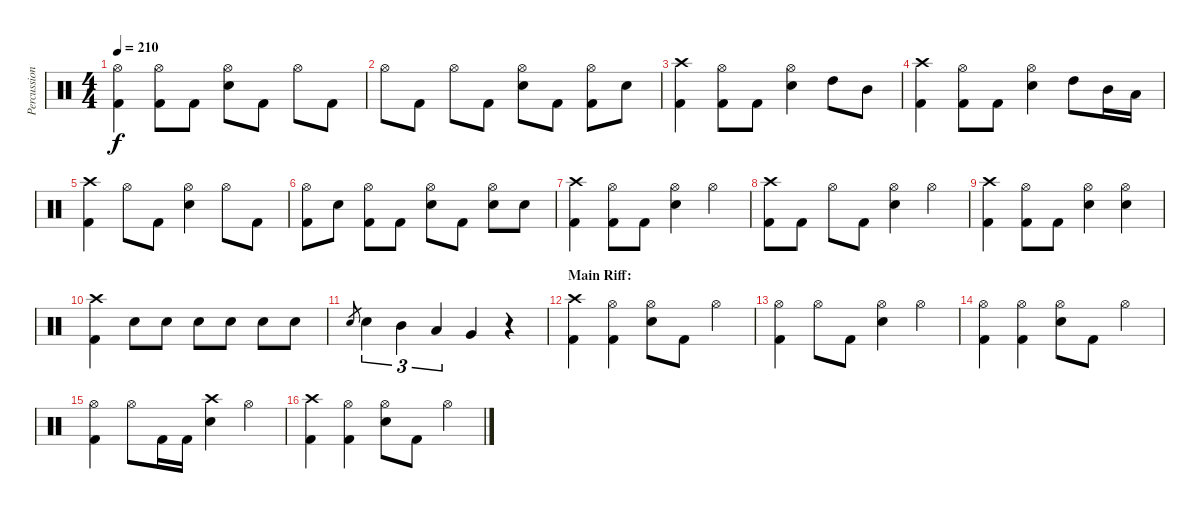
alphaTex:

\track ("Percussion" "Percussion") {instrument percussion}
\staff {score}
\articulation defaults
\ts (4 4)
\tempo 210
\clef neutral
\ks c
("Hi-Hat (open)" "Kick (hit) 2").4{dy f} ("Hi-Hat (open)" "Kick (hit) 2").8 "Kick (hit) 2".8 ("Hi-Hat (open)" "Snare (hit) 2").8 "Kick (hit) 2".8 "Hi-Hat (open)".8 "Kick (hit) 2".8 |
"Hi-Hat (open)".8 "Kick (hit) 2".8 "Hi-Hat (open)".8 "Kick (hit) 2".8 ("Hi-Hat (open)" "Snare (hit) 2").8 "Kick (hit) 2".8 ("Hi-Hat (open)" "Kick (hit) 2").8 "Snare (hit) 2".8 |
("Crash high (hit)" "Kick (hit) 2").4 ("Hi-Hat (open)" "Kick (hit) 2").8 "Kick (hit) 2".8 ("Hi-Hat (open)" "Snare (hit) 2").4 "High Tom (hit)".8 "Mid Tom (hit)".8 |
("Crash high (hit)" "Kick (hit) 2").4 ("Hi-Hat (open)" "Kick (hit) 2").8 "Kick (hit) 2".8 ("Hi-Hat (open)" "Snare (hit) 2").4 "High Tom (hit)".8 "Mid Tom (hit)".16 "Low Tom (hit)".16 |
("Crash high (hit)" "Kick (hit) 2").4 "Hi-Hat (open)".8 "Kick (hit) 2".8 ("Hi-Hat (open)" "Snare (hit) 2").4 "Hi-Hat (open)".8 "Kick (hit) 2".8 |
("Hi-Hat (open)" "Kick (hit) 2").8 "Snare (hit) 2".8 ("Hi-Hat (open)" "Kick (hit) 2").8 "Kick (hit) 2".8 ("Hi-Hat (open)" "Snare (hit) 2").8 "Kick (hit) 2".8 ("Hi-Hat (open)" "Snare (hit) 2").8 "Snare (hit) 2".8 |
("Crash high (hit)" "Kick (hit) 2").4 ("Hi-Hat (open)" "Kick (hit) 2").8 "Kick (hit) 2".8 ("Hi-Hat (open)" "Snare (hit) 2").4 "Hi-Hat (open)".4 |
("Crash high (hit)" "Kick (hit) 2").8 "Kick (hit) 2".8 "Hi-Hat (open)".8 "Kick (hit) 2".8 ("Hi-Hat (open)" "Snare (hit) 2").4 "Hi-Hat (open)".4 |
("Crash high (hit)" "Kick (hit) 2").4 ("Hi-Hat (open)" "Kick (hit) 2").8 "Kick (hit) 2".8 ("Hi-Hat (open)" "Snare (hit) 2").4 ("Hi-Hat (open)" "Snare (hit) 2").4 |
("Crash high (hit)" "Kick (hit) 2").4 "Snare (hit) 2".8 "Snare (hit) 2".8 "Snare (hit) 2".8 "Snare (hit) 2".8 "Snare (hit) 2".8 "Snare (hit) 2".8 |
"Snare (hit) 2".8{gr} "Snare (hit) 2".4{tu (3 2)} "Mid Tom (hit)".4{tu (3 2)} "Low Tom (hit)".4{tu (3 2)} "Very Low Tom (hit)".4 r.4 |
\section ("" "Main Riff:")
("Crash high (hit)" "Kick (hit) 2").4 ("Hi-Hat (open)" "Kick (hit) 2").4 ("Hi-Hat (open)" "Snare (hit) 2").8 "Kick (hit) 2".8 "Hi-Hat (open)".4 |
("Hi-Hat (open)" "Kick (hit) 2").4 "Hi-Hat (open)".8 "Kick (hit) 2".8 ("Hi-Hat (open)" "Snare (hit) 2").4 "Hi-Hat (open)".4 |
("Hi-Hat (open)" "Kick (hit) 2").4 ("Hi-Hat (open)" "Kick (hit) 2").4 ("Hi-Hat (open)" "Snare (hit) 2").8 "Kick (hit) 2".8 "Hi-Hat (open)".4 |
("Hi-Hat (open)" "Kick (hit) 2").4 "Hi-Hat (open)".8 "Kick (hit) 2".16 "Kick (hit) 2".16 ("Crash high (hit)" "Snare (hit) 2").4 "Hi-Hat (open)".4 |
("Crash high (hit)" "Kick (hit) 2").4 ("Hi-Hat (open)" "Kick (hit) 2").4 ("Hi-Hat (open)" "Snare (hit) 2").8 "Kick (hit) 2".8 "Hi-Hat (open)".4
